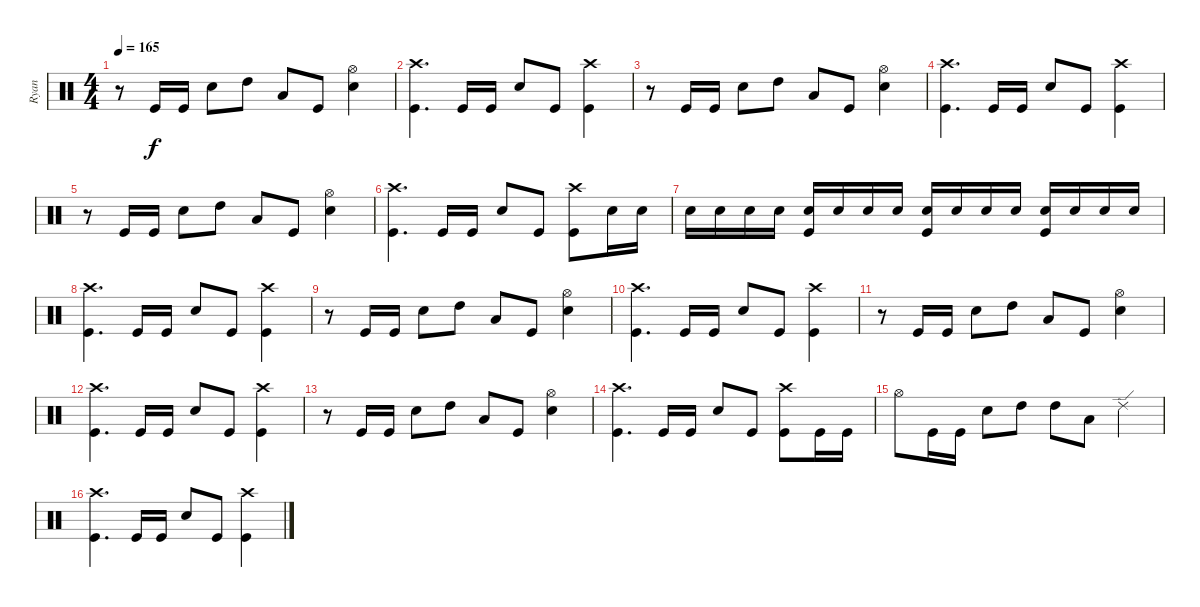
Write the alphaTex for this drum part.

\track ("Ryan" "Ryan") {instrument percussion}
\staff {score}
\articulation defaults
\ts (4 4)
\tempo 165
\clef neutral
\ks c
r.8{dy f} "Kick (hit)".16 "Kick (hit)".16 "Electric Snare (hit)".8 "High Tom (hit)".8 "Low Floor Tom (hit)".8 "Kick (hit)".8 ("Hi-Hat (open)" "Electric Snare (hit)").4 |
("Crash high (hit)" "Kick (hit)").4{d} "Kick (hit)".16 "Kick (hit)".16 "Electric Snare (hit)".8 "Kick (hit)".8 ("Crash high (hit)" "Kick (hit)").4 |
r.8 "Kick (hit)".16 "Kick (hit)".16 "Electric Snare (hit)".8 "High Tom (hit)".8 "Low Floor Tom (hit)".8 "Kick (hit)".8 ("Hi-Hat (open)" "Electric Snare (hit)").4 |
("Crash high (hit)" "Kick (hit)").4{d} "Kick (hit)".16 "Kick (hit)".16 "Electric Snare (hit)".8 "Kick (hit)".8 ("Crash high (hit)" "Kick (hit)").4 |
r.8 "Kick (hit)".16 "Kick (hit)".16 "Electric Snare (hit)".8 "High Tom (hit)".8 "Low Floor Tom (hit)".8 "Kick (hit)".8 ("Hi-Hat (open)" "Electric Snare (hit)").4 |
("Crash high (hit)" "Kick (hit)").4{d} "Kick (hit)".16 "Kick (hit)".16 "Electric Snare (hit)".8 "Kick (hit)".8 ("Crash high (hit)" "Kick (hit)").8 "Electric Snare (hit)".16 "Electric Snare (hit)".16 |
"Electric Snare (hit)".16 "Electric Snare (hit)".16 "Electric Snare (hit)".16 "Electric Snare (hit)".16 ("Electric Snare (hit)" "Kick (hit)").16 "Electric Snare (hit)".16 "Electric Snare (hit)".16 "Electric Snare (hit)".16 ("Electric Snare (hit)" "Kick (hit)").16 "Electric Snare (hit)".16 "Electric Snare (hit)".16 "Electric Snare (hit)".16 ("Electric Snare (hit)" "Kick (hit)").16 "Electric Snare (hit)".16 "Electric Snare (hit)".16 "Electric Snare (hit)".16 |
("Crash high (hit)" "Kick (hit)").4{d} "Kick (hit)".16 "Kick (hit)".16 "Electric Snare (hit)".8 "Kick (hit)".8 ("Crash high (hit)" "Kick (hit)").4 |
r.8 "Kick (hit)".16 "Kick (hit)".16 "Electric Snare (hit)".8 "High Tom (hit)".8 "Low Floor Tom (hit)".8 "Kick (hit)".8 ("Hi-Hat (open)" "Electric Snare (hit)").4 |
("Crash high (hit)" "Kick (hit)").4{d} "Kick (hit)".16 "Kick (hit)".16 "Electric Snare (hit)".8 "Kick (hit)".8 ("Crash high (hit)" "Kick (hit)").4 |
r.8 "Kick (hit)".16 "Kick (hit)".16 "Electric Snare (hit)".8 "High Tom (hit)".8 "Low Floor Tom (hit)".8 "Kick (hit)".8 ("Hi-Hat (open)" "Electric Snare (hit)").4 |
("Crash high (hit)" "Kick (hit)").4{d} "Kick (hit)".16 "Kick (hit)".16 "Electric Snare (hit)".8 "Kick (hit)".8 ("Crash high (hit)" "Kick (hit)").4 |
r.8 "Kick (hit)".16 "Kick (hit)".16 "Electric Snare (hit)".8 "High Tom (hit)".8 "Low Floor Tom (hit)".8 "Kick (hit)".8 ("Hi-Hat (open)" "Electric Snare (hit)").4 |
("Crash high (hit)" "Kick (hit)").4{d} "Kick (hit)".16 "Kick (hit)".16 "Electric Snare (hit)".8 "Kick (hit)".8 ("Crash high (hit)" "Kick (hit)").8 "Kick (hit)".16 "Kick (hit)".16 |
"Hi-Hat (open)".8 "Kick (hit)".16 "Kick (hit)".16 "Electric Snare (hit)".8 "High Tom (hit)".8 "High Tom (hit)".8 "Low Floor Tom (hit)".8 "Ride (edge) 2".4 |
("Crash high (hit)" "Kick (hit)").4{d} "Kick (hit)".16 "Kick (hit)".16 "Electric Snare (hit)".8 "Kick (hit)".8 ("Crash high (hit)" "Kick (hit)").4
